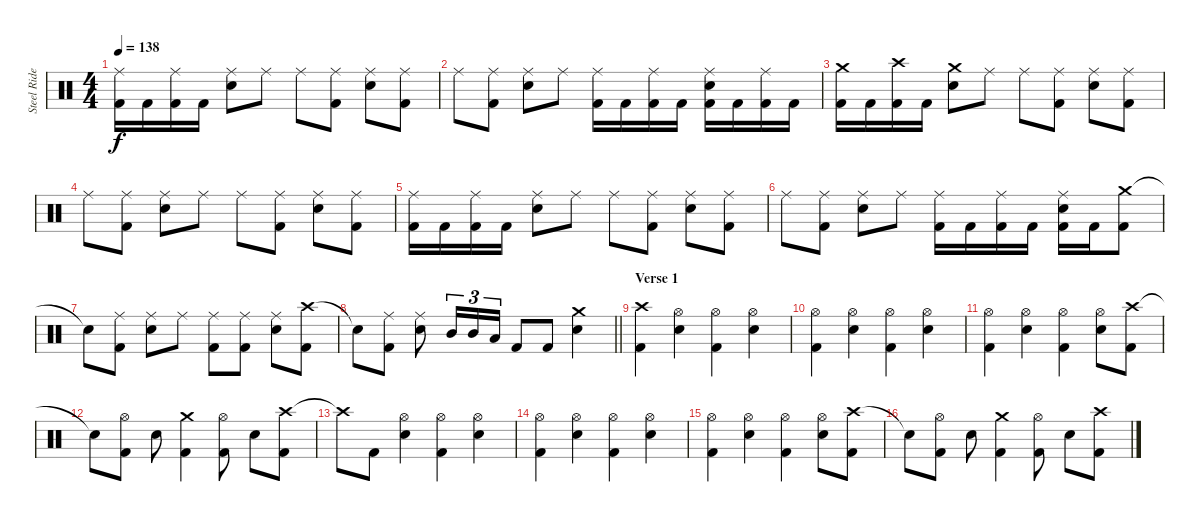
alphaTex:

\track ("Steel Rider" "Steel Ride") {instrument percussion}
\staff {score}
\articulation defaults
\ts (4 4)
\tempo 138
\clef neutral
\ks c
("Ride (middle)" "Kick (hit) 2").16{dy f} "Kick (hit) 2".16 ("Ride (middle)" "Kick (hit) 2").16 "Kick (hit) 2".16 ("Ride (middle)" "Electric Snare (hit)").8 "Ride (middle)".8 "Ride (middle)".8 ("Ride (middle)" "Kick (hit) 2").8 ("Ride (middle)" "Electric Snare (hit)").8 ("Ride (middle)" "Kick (hit) 2").8 |
"Ride (middle)".8 ("Ride (middle)" "Kick (hit) 2").8 ("Ride (middle)" "Electric Snare (hit)").8 "Ride (middle)".8 ("Ride (middle)" "Kick (hit) 2").16 "Kick (hit) 2".16 ("Ride (middle)" "Kick (hit) 2").16 "Kick (hit) 2".16 ("Ride (middle)" "Electric Snare (hit)" "Kick (hit) 2").16 "Kick (hit) 2".16 ("Ride (middle)" "Kick (hit) 2").16 "Kick (hit) 2".16 |
("Crash medium (hit)" "Kick (hit) 2").16 "Kick (hit) 2".16 ("Crash high (hit)" "Kick (hit) 2").16 "Kick (hit) 2".16 ("Crash medium (hit)" "Electric Snare (hit)").8 "Ride (middle)".8 "Ride (middle)".8 ("Ride (middle)" "Kick (hit) 2").8 ("Ride (middle)" "Electric Snare (hit)").8 ("Ride (middle)" "Kick (hit) 2").8 |
"Ride (middle)".8 ("Ride (middle)" "Kick (hit) 2").8 ("Ride (middle)" "Electric Snare (hit)").8 "Ride (middle)".8 "Ride (middle)".8 ("Ride (middle)" "Kick (hit) 2").8 ("Ride (middle)" "Electric Snare (hit)").8 ("Ride (middle)" "Kick (hit) 2").8 |
("Ride (middle)" "Kick (hit) 2").16 "Kick (hit) 2".16 ("Ride (middle)" "Kick (hit) 2").16 "Kick (hit) 2".16 ("Ride (middle)" "Electric Snare (hit)").8 "Ride (middle)".8 "Ride (middle)".8 ("Ride (middle)" "Kick (hit) 2").8 ("Ride (middle)" "Electric Snare (hit)").8 ("Ride (middle)" "Kick (hit) 2").8 |
"Ride (middle)".8 ("Ride (middle)" "Kick (hit) 2").8 ("Ride (middle)" "Electric Snare (hit)").8 "Ride (middle)".8 ("Ride (middle)" "Kick (hit) 2").16 "Kick (hit) 2".16 ("Ride (middle)" "Kick (hit) 2").16 "Kick (hit) 2".16 ("Ride (middle)" "Electric Snare (hit)" "Kick (hit) 2").16 "Kick (hit) 2".16 ("Crash medium (hit)" "Kick (hit) 2").8 |
"Snare (hit)"{t}.8 ("Ride (middle)" "Kick (hit) 2").8 ("Ride (middle)" "Electric Snare (hit)").8 "Ride (middle)".8 ("Ride (middle)" "Kick (hit) 2").8 ("Ride (middle)" "Kick (hit) 2").8 ("Ride (middle)" "Electric Snare (hit)").8 ("Crash high (hit)" "Kick (hit) 2").8 |
\barLineRight lightlight "Snare (hit)"{t}.8
("Ride (middle)" "Kick (hit) 2").8 ("Ride (middle)" "Electric Snare (hit)").8 "Mid Tom (hit)".16{tu (3 2)} "Mid Tom (hit)".16{tu (3 2)} "Low Tom (hit)".16{tu (3 2)} "Kick (hit) 2".8 "Kick (hit) 2".8 ("Crash medium (hit)" "Electric Snare (hit)").4 |
\section ("" "Verse 1")
("Crash high (hit)" "Kick (hit) 2").4 ("Hi-Hat (open)" "Electric Snare (hit)").4 ("Hi-Hat (open)" "Kick (hit) 2").4 ("Hi-Hat (open)" "Electric Snare (hit)").4 |
("Hi-Hat (open)" "Kick (hit) 2").4 ("Hi-Hat (open)" "Electric Snare (hit)").4 ("Hi-Hat (open)" "Kick (hit) 2").4 ("Hi-Hat (open)" "Electric Snare (hit)").4 |
("Hi-Hat (open)" "Kick (hit) 2").4 ("Hi-Hat (open)" "Electric Snare (hit)").4 ("Hi-Hat (open)" "Kick (hit) 2").4 ("Hi-Hat (open)" "Electric Snare (hit)").8 ("Crash high (hit)" "Kick (hit) 2").8 |
"Snare (hit)"{t}.8 ("Hi-Hat (open)" "Kick (hit) 2").8 "Electric Snare (hit)".8 ("Crash medium (hit)" "Kick (hit) 2").4 ("Hi-Hat (open)" "Kick (hit) 2").8 "Electric Snare (hit)".8 ("Crash high (hit)" "Kick (hit) 2").8 |
"Crash high (hit)"{t}.8 "Kick (hit) 2".8 ("Hi-Hat (open)" "Electric Snare (hit)").4 ("Hi-Hat (open)" "Kick (hit) 2").4 ("Hi-Hat (open)" "Electric Snare (hit)").4 |
("Hi-Hat (open)" "Kick (hit) 2").4 ("Hi-Hat (open)" "Electric Snare (hit)").4 ("Hi-Hat (open)" "Kick (hit) 2").4 ("Hi-Hat (open)" "Electric Snare (hit)").4 |
("Hi-Hat (open)" "Kick (hit) 2").4 ("Hi-Hat (open)" "Electric Snare (hit)").4 ("Hi-Hat (open)" "Kick (hit) 2").4 ("Hi-Hat (open)" "Electric Snare (hit)").8 ("Crash high (hit)" "Kick (hit) 2").8 |
"Snare (hit)"{t}.8 ("Hi-Hat (open)" "Kick (hit) 2").8 "Electric Snare (hit)".8 ("Crash medium (hit)" "Kick (hit) 2").4 ("Hi-Hat (open)" "Kick (hit) 2").8 "Electric Snare (hit)".8 ("Crash high (hit)" "Kick (hit) 2").8
